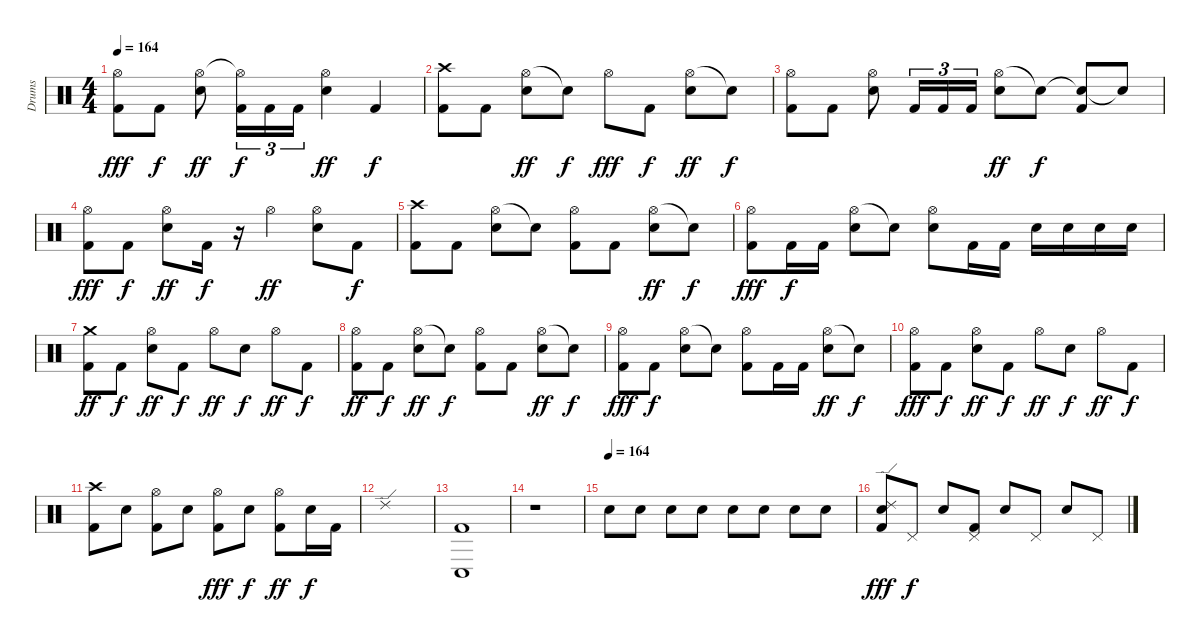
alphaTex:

\track ("Drums" "Drums") {instrument percussion}
\staff {score}
\articulation defaults
\ts (4 4)
\tempo 164
\clef neutral
\ks c
("Hi-Hat (open)" "Kick (hit) 2").8{dy fff} "Kick (hit) 2".8{dy f} ("Hi-Hat (open)" "Electric Snare (hit)").8{dy ff} ("Hi-Hat (open)"{t} "Kick (hit) 2").16{tu (3 2) dy f} "Kick (hit) 2".16{tu (3 2)} "Kick (hit) 2".16{tu (3 2)} ("Hi-Hat (open)" "Electric Snare (hit)").4{dy ff} "Kick (hit) 2".4{dy f} |
("Crash high (hit)" "Kick (hit) 2").8 "Kick (hit) 2".8 ("Hi-Hat (open)" "Electric Snare (hit)").8{dy ff} "Snare (hit)"{t}.8{dy f} "Hi-Hat (open)".8{dy fff} "Kick (hit) 2".8{dy f} ("Hi-Hat (open)" "Electric Snare (hit)").8{dy ff} "Snare (hit)"{t}.8{dy f} |
("Hi-Hat (open)" "Kick (hit) 2").8 "Kick (hit) 2".8 ("Hi-Hat (open)" "Electric Snare (hit)").8 "Kick (hit) 2".16{tu (3 2)} "Kick (hit) 2".16{tu (3 2)} "Kick (hit) 2".16{tu (3 2)} ("Hi-Hat (open)" "Electric Snare (hit)").8{dy ff} "Snare (hit)"{t}.8{dy f} ("Snare (hit)"{t} "Kick (hit) 2").8 "Snare (hit)"{t}.8 |
("Hi-Hat (open)" "Kick (hit) 2").8{dy fff} "Kick (hit) 2".8{dy f} ("Hi-Hat (open)" "Electric Snare (hit)").8{dy ff} "Kick (hit) 2".16{dy f} r.16 "Hi-Hat (open)".4{dy ff} ("Hi-Hat (open)" "Electric Snare (hit)").8 "Kick (hit) 2".8{dy f} |
("Crash high (hit)" "Kick (hit) 2").8 "Kick (hit) 2".8 ("Hi-Hat (open)" "Electric Snare (hit)").8 "Snare (hit)"{t}.8 ("Hi-Hat (open)" "Kick (hit) 2").8 "Kick (hit) 2".8 ("Hi-Hat (open)" "Electric Snare (hit)").8{dy ff} "Snare (hit)"{t}.8{dy f} |
("Hi-Hat (open)" "Kick (hit) 2").8{dy fff} "Kick (hit) 2".16{dy f} "Kick (hit) 2".16 ("Hi-Hat (open)" "Electric Snare (hit)").8 "Snare (hit)"{t}.8 ("Hi-Hat (open)" "Electric Snare (hit)").8 "Kick (hit) 2".16 "Kick (hit) 2".16 "Electric Snare (hit)".16 "Electric Snare (hit)".16 "Electric Snare (hit)".16 "Electric Snare (hit)".16 |
("Crash medium (hit)" "Kick (hit) 2").8{dy ff} "Kick (hit) 2".8{dy f} ("Hi-Hat (open)" "Electric Snare (hit)").8{dy ff} "Kick (hit) 2".8{dy f} "Hi-Hat (open)".8{dy ff} "Electric Snare (hit)".8{dy f} "Hi-Hat (open)".8{dy ff} "Kick (hit) 2".8{dy f} |
("Hi-Hat (open)" "Kick (hit) 2").8{dy ff} "Kick (hit) 2".8{dy f} ("Hi-Hat (open)" "Electric Snare (hit)").8{dy ff} "Snare (hit)"{t}.8{dy f} ("Hi-Hat (open)" "Kick (hit) 2").8 "Kick (hit) 2".8 ("Hi-Hat (open)" "Electric Snare (hit)").8{dy ff} "Snare (hit)"{t}.8{dy f} |
("Hi-Hat (open)" "Kick (hit) 2").8{dy fff} "Kick (hit) 2".8{dy f} ("Hi-Hat (open)" "Electric Snare (hit)").8 "Snare (hit)"{t}.8 ("Hi-Hat (open)" "Kick (hit) 2").8 "Kick (hit) 2".16 "Kick (hit) 2".16 ("Hi-Hat (open)" "Electric Snare (hit)").8{dy ff} "Snare (hit)"{t}.8{dy f} |
("Hi-Hat (open)" "Kick (hit) 2").8{dy fff} "Kick (hit) 2".8{dy f} ("Hi-Hat (open)" "Electric Snare (hit)").8{dy ff} "Kick (hit) 2".8{dy f} "Hi-Hat (open)".8{dy ff} "Electric Snare (hit)".8{dy f} "Hi-Hat (open)".8{dy ff} "Kick (hit) 2".8{dy f} |
("Crash high (hit)" "Kick (hit) 2").8 "Electric Snare (hit)".8 ("Hi-Hat (open)" "Kick (hit) 2").8 "Electric Snare (hit)".8 ("Hi-Hat (open)" "Kick (hit) 2").8{dy fff} "Electric Snare (hit)".8{dy f} ("Hi-Hat (open)" "Kick (hit) 2").8{dy ff} "Electric Snare (hit)".16{dy f} "Kick (hit) 2".16 |
"Ride (edge) 2".1 |
("Conga low (hit)" "Kick (hit) 2").1 |
r.1 |
\tempo (164)
"Snare (hit) 2".8 "Snare (hit) 2".8 "Snare (hit) 2".8 "Snare (hit) 2".8 "Snare (hit) 2".8 "Snare (hit) 2".8 "Snare (hit) 2".8 "Snare (hit) 2".8 |
("Ride (edge) 2" "Electric Snare (hit)" "Kick (hit) 2").8{dy fff} "Pedal Hi-Hat (hit)".8{dy f} "Electric Snare (hit)".8 ("Pedal Hi-Hat (hit)" "Kick (hit) 2").8 "Electric Snare (hit)".8 "Pedal Hi-Hat (hit)".8 "Electric Snare (hit)".8 "Pedal Hi-Hat (hit)".8
